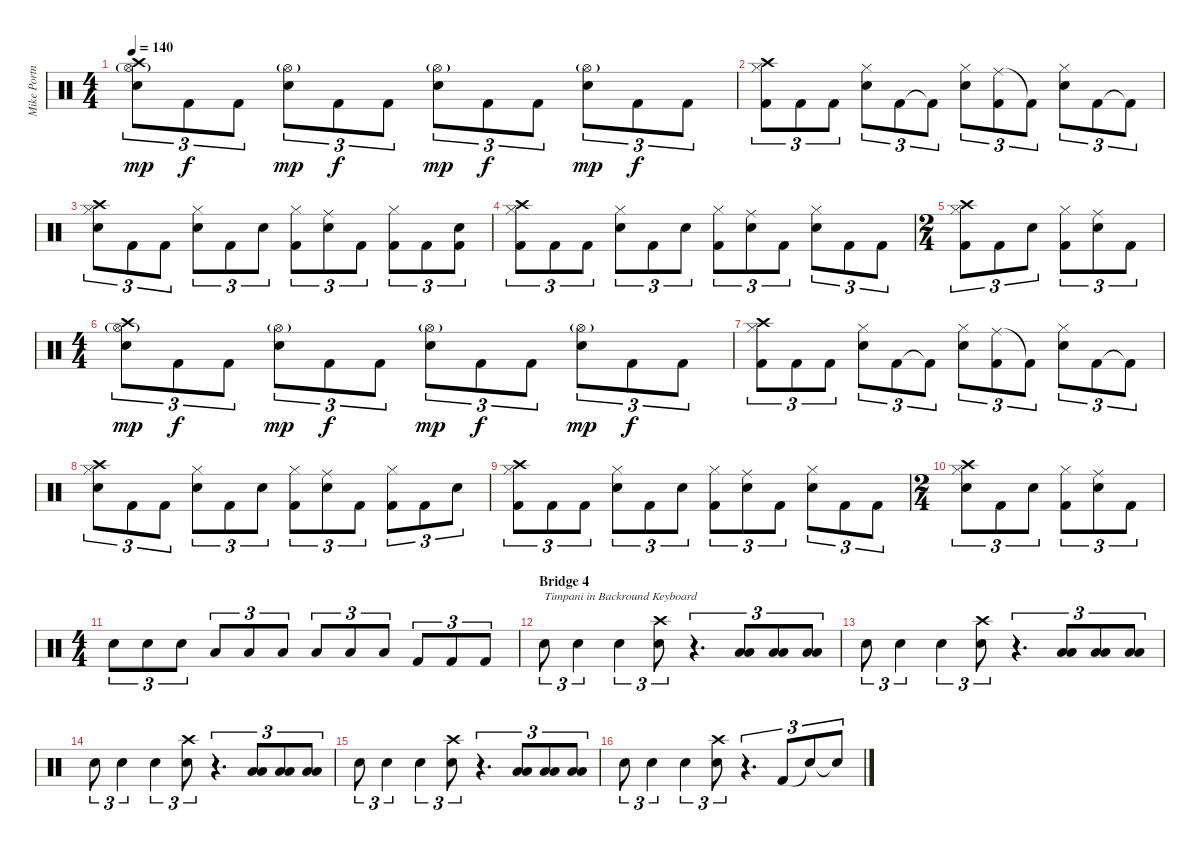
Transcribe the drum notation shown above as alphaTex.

\track ("Mike Portnoy Drums/Percussion" "Mike Portn") {instrument percussion}
\staff {score}
\articulation defaults
\ts (4 4)
\tempo 140
\clef neutral
\ks c
("Hi-Hat (open)"{g} "Crash high (hit)" "Snare (hit) 2").8{tu (3 2) dy mp} "Kick (hit) 2".8{tu (3 2) dy f} "Kick (hit) 2".8{tu (3 2)} ("Hi-Hat (open)"{g} "Snare (hit) 2").8{tu (3 2) dy mp} "Kick (hit) 2".8{tu (3 2) dy f} "Kick (hit) 2".8{tu (3 2)} ("Hi-Hat (open)"{g} "Snare (hit) 2").8{tu (3 2) dy mp} "Kick (hit) 2".8{tu (3 2) dy f} "Kick (hit) 2".8{tu (3 2)} ("Hi-Hat (open)"{g} "Snare (hit) 2").8{tu (3 2) dy mp} "Kick (hit) 2".8{tu (3 2) dy f} "Kick (hit) 2".8{tu (3 2)} |
("Hi-Hat (closed)" "Crash high (hit)" "Kick (hit) 2").8{tu (3 2)} "Kick (hit) 2".8{tu (3 2)} "Kick (hit) 2".8{tu (3 2)} ("Hi-Hat (closed)" "Snare (hit) 2").8{tu (3 2)} "Kick (hit) 2".8{tu (3 2)} "Kick (hit) 2"{t}.8{tu (3 2)} ("Hi-Hat (closed)" "Snare (hit) 2").8{tu (3 2)} ("Ride (middle)" "Kick (hit) 2").8{tu (3 2)} "Kick (hit) 2"{t}.8{tu (3 2)} ("Hi-Hat (closed)" "Snare (hit) 2").8{tu (3 2)} "Kick (hit) 2".8{tu (3 2)} "Kick (hit) 2"{t}.8{tu (3 2)} |
("Hi-Hat (closed)" "Crash high (hit)" "Snare (hit) 2").8{tu (3 2)} "Kick (hit) 2".8{tu (3 2)} "Kick (hit) 2".8{tu (3 2)} ("Hi-Hat (closed)" "Snare (hit) 2").8{tu (3 2)} "Kick (hit) 2".8{tu (3 2)} "Snare (hit) 2".8{tu (3 2)} ("Hi-Hat (closed)" "Kick (hit) 2").8{tu (3 2)} ("Ride (middle)" "Snare (hit) 2").8{tu (3 2)} "Kick (hit) 2".8{tu (3 2)} ("Hi-Hat (closed)" "Kick (hit) 2").8{tu (3 2)} "Kick (hit) 2".8{tu (3 2)} ("Snare (hit) 2" "Kick (hit) 2").8{tu (3 2)} |
("Hi-Hat (closed)" "Crash high (hit)" "Kick (hit) 2").8{tu (3 2)} "Kick (hit) 2".8{tu (3 2)} "Kick (hit) 2".8{tu (3 2)} ("Hi-Hat (closed)" "Snare (hit) 2").8{tu (3 2)} "Kick (hit) 2".8{tu (3 2)} "Snare (hit) 2".8{tu (3 2)} ("Hi-Hat (closed)" "Kick (hit) 2").8{tu (3 2)} ("Ride (middle)" "Snare (hit) 2").8{tu (3 2)} "Kick (hit) 2".8{tu (3 2)} ("Hi-Hat (closed)" "Snare (hit) 2").8{tu (3 2)} "Kick (hit) 2".8{tu (3 2)} "Kick (hit) 2".8{tu (3 2)} |
\ts (2 4)
("Hi-Hat (closed)" "Crash high (hit)" "Kick (hit) 2").8{tu (3 2)} "Kick (hit) 2".8{tu (3 2)} "Snare (hit) 2".8{tu (3 2)} ("Hi-Hat (closed)" "Kick (hit) 2").8{tu (3 2)} ("Ride (middle)" "Snare (hit) 2").8{tu (3 2)} "Kick (hit) 2".8{tu (3 2)} |
\ts (4 4)
("Hi-Hat (open)"{g} "Crash high (hit)" "Snare (hit) 2").8{tu (3 2) dy mp} "Kick (hit) 2".8{tu (3 2) dy f} "Kick (hit) 2".8{tu (3 2)} ("Hi-Hat (open)"{g} "Snare (hit) 2").8{tu (3 2) dy mp} "Kick (hit) 2".8{tu (3 2) dy f} "Kick (hit) 2".8{tu (3 2)} ("Hi-Hat (open)"{g} "Snare (hit) 2").8{tu (3 2) dy mp} "Kick (hit) 2".8{tu (3 2) dy f} "Kick (hit) 2".8{tu (3 2)} ("Hi-Hat (open)"{g} "Snare (hit) 2").8{tu (3 2) dy mp} "Kick (hit) 2".8{tu (3 2) dy f} "Kick (hit) 2".8{tu (3 2)} |
("Hi-Hat (closed)" "Crash high (hit)" "Kick (hit) 2").8{tu (3 2)} "Kick (hit) 2".8{tu (3 2)} "Kick (hit) 2".8{tu (3 2)} ("Hi-Hat (closed)" "Snare (hit) 2").8{tu (3 2)} "Kick (hit) 2".8{tu (3 2)} "Kick (hit) 2"{t}.8{tu (3 2)} ("Hi-Hat (closed)" "Snare (hit) 2").8{tu (3 2)} ("Ride (middle)" "Kick (hit) 2").8{tu (3 2)} "Kick (hit) 2"{t}.8{tu (3 2)} ("Hi-Hat (closed)" "Snare (hit) 2").8{tu (3 2)} "Kick (hit) 2".8{tu (3 2)} "Kick (hit) 2"{t}.8{tu (3 2)} |
("Hi-Hat (closed)" "Crash high (hit)" "Snare (hit) 2").8{tu (3 2)} "Kick (hit) 2".8{tu (3 2)} "Kick (hit) 2".8{tu (3 2)} ("Hi-Hat (closed)" "Snare (hit) 2").8{tu (3 2)} "Kick (hit) 2".8{tu (3 2)} "Snare (hit) 2".8{tu (3 2)} ("Hi-Hat (closed)" "Kick (hit) 2").8{tu (3 2)} ("Ride (middle)" "Snare (hit) 2").8{tu (3 2)} "Kick (hit) 2".8{tu (3 2)} ("Hi-Hat (closed)" "Kick (hit) 2").8{tu (3 2)} "Kick (hit) 2".8{tu (3 2)} "Snare (hit) 2".8{tu (3 2)} |
("Hi-Hat (closed)" "Crash high (hit)" "Kick (hit) 2").8{tu (3 2)} "Kick (hit) 2".8{tu (3 2)} "Kick (hit) 2".8{tu (3 2)} ("Hi-Hat (closed)" "Snare (hit) 2").8{tu (3 2)} "Kick (hit) 2".8{tu (3 2)} "Snare (hit) 2".8{tu (3 2)} ("Hi-Hat (closed)" "Kick (hit) 2").8{tu (3 2)} ("Ride (middle)" "Snare (hit) 2").8{tu (3 2)} "Kick (hit) 2".8{tu (3 2)} ("Hi-Hat (closed)" "Snare (hit) 2").8{tu (3 2)} "Kick (hit) 2".8{tu (3 2)} "Kick (hit) 2".8{tu (3 2)} |
\ts (2 4)
("Hi-Hat (closed)" "Crash high (hit)" "Snare (hit) 2").8{tu (3 2)} "Kick (hit) 2".8{tu (3 2)} "Snare (hit) 2".8{tu (3 2)} ("Hi-Hat (closed)" "Kick (hit) 2").8{tu (3 2)} ("Ride (middle)" "Snare (hit) 2").8{tu (3 2)} "Kick (hit) 2".8{tu (3 2)} |
\ts (4 4)
"Snare (hit) 2".8{tu (3 2)} "Snare (hit) 2".8{tu (3 2)} "Snare (hit) 2".8{tu (3 2)} "Low Tom (hit)".8{tu (3 2)} "Low Tom (hit)".8{tu (3 2)} "Low Tom (hit)".8{tu (3 2)} "Low Floor Tom (hit)".8{tu (3 2)} "Low Floor Tom (hit)".8{tu (3 2)} "Low Floor Tom (hit)".8{tu (3 2)} "Kick (hit) 2".8{tu (3 2)} "Kick (hit) 2".8{tu (3 2)} "Kick (hit) 2".8{tu (3 2)} |
\section ("" "Bridge 4")
"Snare (hit) 2".8{tu (3 2) txt "Timpani in Backround Keyboard "} "Snare (hit) 2".4{tu (3 2)} "Snare (hit) 2".4{tu (3 2)} ("Snare (hit) 2" "Crash high (hit)").8{tu (3 2)} r.4{d tu (3 2)} ("Low Tom (hit)" "Low Floor Tom (hit)").8{tu (3 2)} ("Low Tom (hit)" "Low Floor Tom (hit)").8{tu (3 2)} ("Low Tom (hit)" "Low Floor Tom (hit)").8{tu (3 2)} |
"Snare (hit) 2".8{tu (3 2)} "Snare (hit) 2".4{tu (3 2)} "Snare (hit) 2".4{tu (3 2)} ("Snare (hit) 2" "Crash high (hit)").8{tu (3 2)} r.4{d tu (3 2)} ("Low Tom (hit)" "Low Floor Tom (hit)").8{tu (3 2)} ("Low Tom (hit)" "Low Floor Tom (hit)").8{tu (3 2)} ("Low Tom (hit)" "Low Floor Tom (hit)").8{tu (3 2)} |
"Snare (hit) 2".8{tu (3 2)} "Snare (hit) 2".4{tu (3 2)} "Snare (hit) 2".4{tu (3 2)} ("Snare (hit) 2" "Crash high (hit)").8{tu (3 2)} r.4{d tu (3 2)} ("Low Tom (hit)" "Low Floor Tom (hit)").8{tu (3 2)} ("Low Tom (hit)" "Low Floor Tom (hit)").8{tu (3 2)} ("Low Tom (hit)" "Low Floor Tom (hit)").8{tu (3 2)} |
"Snare (hit) 2".8{tu (3 2)} "Snare (hit) 2".4{tu (3 2)} "Snare (hit) 2".4{tu (3 2)} ("Snare (hit) 2" "Crash high (hit)").8{tu (3 2)} r.4{d tu (3 2)} ("Low Tom (hit)" "Low Floor Tom (hit)").8{tu (3 2)} ("Low Tom (hit)" "Low Floor Tom (hit)").8{tu (3 2)} ("Low Tom (hit)" "Low Floor Tom (hit)").8{tu (3 2)} |
"Snare (hit) 2".8{tu (3 2)} "Snare (hit) 2".4{tu (3 2)} "Snare (hit) 2".4{tu (3 2)} ("Snare (hit) 2" "Crash high (hit)").8{tu (3 2)} r.4{d tu (3 2)} "Kick (hit) 2".8{tu (3 2)} "Snare (hit)"{t}.8{tu (3 2)} "Snare (hit)"{t}.8{tu (3 2)}
